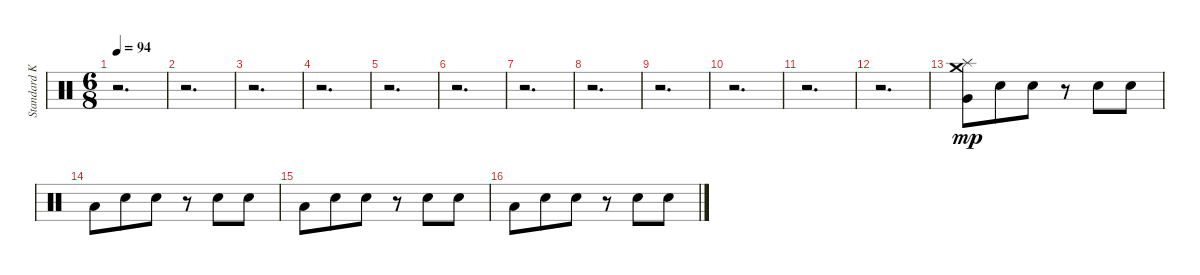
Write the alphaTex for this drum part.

\track ("Standard Kit" "Standard K") {instrument percussion}
\staff {score}
\articulation defaults
\ts (6 8)
\tempo 94
\clef neutral
\ks c
r.2{d dy mp} |
r.2{d} |
r.2{d} |
r.2{d} |
r.2{d} |
r.2{d} |
r.2{d} |
r.2{d} |
r.2{d} |
r.2{d} |
r.2{d} |
r.2{d} |
("Very Low Tom (hit)" "Splash (hit)" "Crash medium (hit)").8 "Electric Snare (hit)".8 "Electric Snare (hit)".8 r.8 "Electric Snare (hit)".8 "Electric Snare (hit)".8 |
"Low Floor Tom (hit)".8 "Electric Snare (hit)".8 "Electric Snare (hit)".8 r.8 "Electric Snare (hit)".8 "Electric Snare (hit)".8 |
"Low Floor Tom (hit)".8 "Electric Snare (hit)".8 "Electric Snare (hit)".8 r.8 "Electric Snare (hit)".8 "Electric Snare (hit)".8 |
"Low Floor Tom (hit)".8 "Electric Snare (hit)".8 "Electric Snare (hit)".8 r.8 "Electric Snare (hit)".8 "Electric Snare (hit)".8
